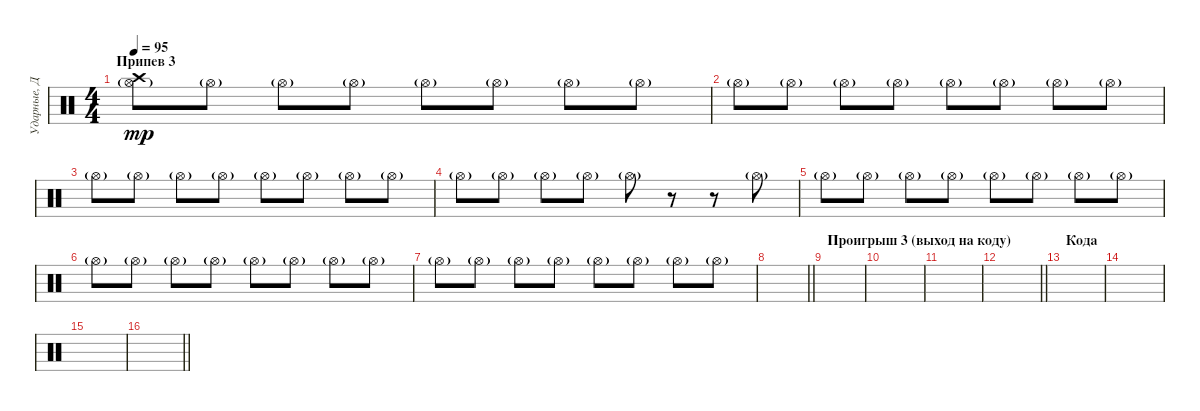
\track ("Ударные, Дэн" "Ударные, Д") {instrument percussion}
\staff {score}
\articulation defaults
\ts (4 4)
\section ("" "Припев 3")
\tempo 95
\clef neutral
\ks c
("Hi-Hat (open)"{g} "Crash high (hit)").8{dy mp} "Hi-Hat (open)"{g}.8 "Hi-Hat (open)"{g}.8 "Hi-Hat (open)"{g}.8 "Hi-Hat (open)"{g}.8 "Hi-Hat (open)"{g}.8 "Hi-Hat (open)"{g}.8 "Hi-Hat (open)"{g}.8 |
"Hi-Hat (open)"{g}.8 "Hi-Hat (open)"{g}.8 "Hi-Hat (open)"{g}.8 "Hi-Hat (open)"{g}.8 "Hi-Hat (open)"{g}.8 "Hi-Hat (open)"{g}.8 "Hi-Hat (open)"{g}.8 "Hi-Hat (open)"{g}.8 |
"Hi-Hat (open)"{g}.8 "Hi-Hat (open)"{g}.8 "Hi-Hat (open)"{g}.8 "Hi-Hat (open)"{g}.8 "Hi-Hat (open)"{g}.8 "Hi-Hat (open)"{g}.8 "Hi-Hat (open)"{g}.8 "Hi-Hat (open)"{g}.8 |
"Hi-Hat (open)"{g}.8 "Hi-Hat (open)"{g}.8 "Hi-Hat (open)"{g}.8 "Hi-Hat (open)"{g}.8 "Hi-Hat (open)"{g}.8 r.8 r.8 "Hi-Hat (open)"{g}.8 |
"Hi-Hat (open)"{g}.8 "Hi-Hat (open)"{g}.8 "Hi-Hat (open)"{g}.8 "Hi-Hat (open)"{g}.8 "Hi-Hat (open)"{g}.8 "Hi-Hat (open)"{g}.8 "Hi-Hat (open)"{g}.8 "Hi-Hat (open)"{g}.8 |
"Hi-Hat (open)"{g}.8 "Hi-Hat (open)"{g}.8 "Hi-Hat (open)"{g}.8 "Hi-Hat (open)"{g}.8 "Hi-Hat (open)"{g}.8 "Hi-Hat (open)"{g}.8 "Hi-Hat (open)"{g}.8 "Hi-Hat (open)"{g}.8 |
"Hi-Hat (open)"{g}.8 "Hi-Hat (open)"{g}.8 "Hi-Hat (open)"{g}.8 "Hi-Hat (open)"{g}.8 "Hi-Hat (open)"{g}.8 "Hi-Hat (open)"{g}.8 "Hi-Hat (open)"{g}.8 "Hi-Hat (open)"{g}.8 |
\barLineRight lightlight
|
\section ("" "Проигрыш 3 (выход на коду)")
|
|
|
\barLineRight lightlight
|
\section ("" "Кода")
|
|
|
\barLineRight lightlight
